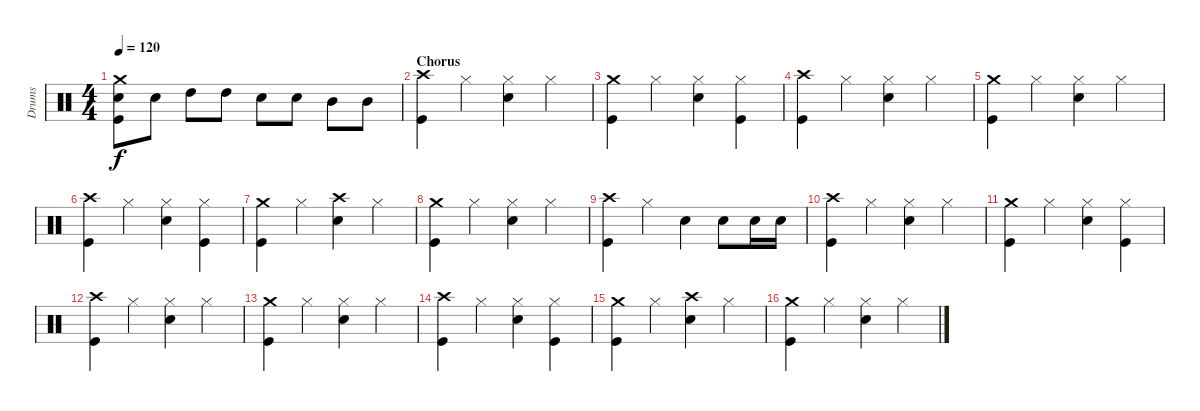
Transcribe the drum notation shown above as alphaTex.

\track ("Drums" "Drums") {instrument percussion}
\staff {score}
\articulation defaults
\ts (4 4)
\tempo 120
\clef neutral
\ks c
("Crash medium (hit)" "Snare (hit) 2" "Kick (hit)").8{dy f} "Snare (hit) 2".8 "High Tom (hit)".8 "High Tom (hit)".8 "Snare (hit) 2".8 "Snare (hit) 2".8 "Mid Tom (hit)".8 "Mid Tom (hit)".8 |
\section ("" "Chorus")
("Crash high (hit)" "Kick (hit)").4 "Hi-Hat (closed)".4 ("Hi-Hat (closed)" "Snare (hit) 2").4 "Hi-Hat (closed)".4 |
("Crash medium (hit)" "Kick (hit)").4 "Hi-Hat (closed)".4 ("Hi-Hat (closed)" "Snare (hit) 2").4 ("Hi-Hat (closed)" "Kick (hit)").4 |
("Crash high (hit)" "Kick (hit)").4 "Hi-Hat (closed)".4 ("Hi-Hat (closed)" "Snare (hit) 2").4 "Hi-Hat (closed)".4 |
("Crash medium (hit)" "Kick (hit)").4 "Hi-Hat (closed)".4 ("Hi-Hat (closed)" "Snare (hit) 2").4 "Hi-Hat (closed)".4 |
("Crash high (hit)" "Kick (hit)").4 "Hi-Hat (closed)".4 ("Hi-Hat (closed)" "Snare (hit) 2").4 ("Hi-Hat (closed)" "Kick (hit)").4 |
("Crash medium (hit)" "Kick (hit)").4 "Hi-Hat (closed)".4 ("Crash high (hit)" "Snare (hit) 2").4 "Hi-Hat (closed)".4 |
("Crash medium (hit)" "Kick (hit)").4 "Hi-Hat (closed)".4 ("Hi-Hat (closed)" "Snare (hit) 2").4 "Hi-Hat (closed)".4 |
("Crash high (hit)" "Kick (hit)").4 "Hi-Hat (closed)".4 "Snare (hit) 2".4 "Snare (hit) 2".8 "Snare (hit) 2".16 "Snare (hit) 2".16 |
("Crash high (hit)" "Kick (hit)").4 "Hi-Hat (closed)".4 ("Hi-Hat (closed)" "Snare (hit) 2").4 "Hi-Hat (closed)".4 |
("Crash medium (hit)" "Kick (hit)").4 "Hi-Hat (closed)".4 ("Hi-Hat (closed)" "Snare (hit) 2").4 ("Hi-Hat (closed)" "Kick (hit)").4 |
("Crash high (hit)" "Kick (hit)").4 "Hi-Hat (closed)".4 ("Hi-Hat (closed)" "Snare (hit) 2").4 "Hi-Hat (closed)".4 |
("Crash medium (hit)" "Kick (hit)").4 "Hi-Hat (closed)".4 ("Hi-Hat (closed)" "Snare (hit) 2").4 "Hi-Hat (closed)".4 |
("Crash high (hit)" "Kick (hit)").4 "Hi-Hat (closed)".4 ("Hi-Hat (closed)" "Snare (hit) 2").4 ("Hi-Hat (closed)" "Kick (hit)").4 |
("Crash medium (hit)" "Kick (hit)").4 "Hi-Hat (closed)".4 ("Crash high (hit)" "Snare (hit) 2").4 "Hi-Hat (closed)".4 |
("Crash medium (hit)" "Kick (hit)").4 "Hi-Hat (closed)".4 ("Hi-Hat (closed)" "Snare (hit) 2").4 "Hi-Hat (closed)".4
